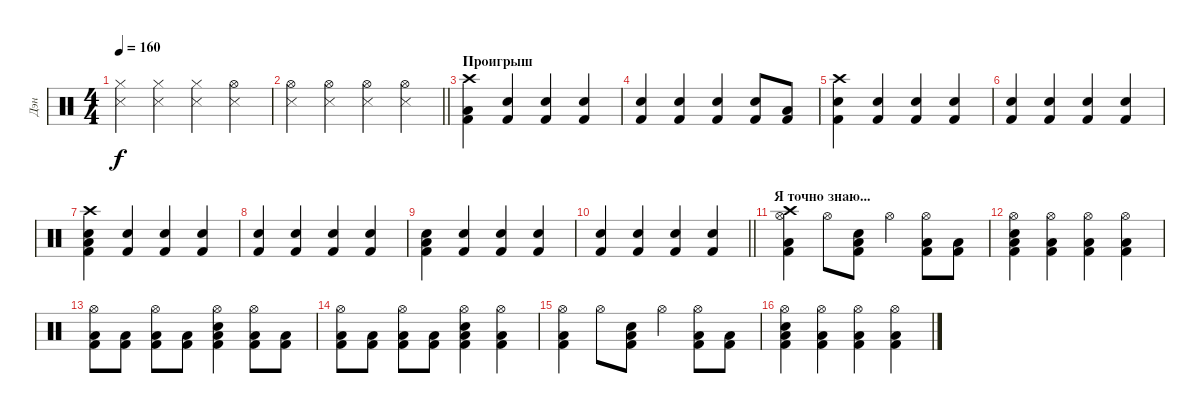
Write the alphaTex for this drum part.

\track ("Дэн" "Дэн") {instrument percussion}
\staff {score}
\articulation defaults
\ts (4 4)
\tempo 160
\clef neutral
\ks c
("Hi-Hat (closed)" "Snare (side stick) 3").4{dy f} ("Hi-Hat (closed)" "Snare (side stick) 3").4 ("Hi-Hat (closed)" "Snare (side stick) 3").4 ("Hi-Hat (open)" "Snare (side stick) 3").4 |
\barLineRight lightlight
("Hi-Hat (open)" "Snare (side stick) 3").4 ("Hi-Hat (open)" "Snare (side stick) 3").4 ("Hi-Hat (open)" "Snare (side stick) 3").4 ("Hi-Hat (open)" "Snare (side stick) 3").4 |
\section ("" "Проигрыш")
("Crash high (hit)" "Low Tom (hit)" "Kick (hit) 2").4 ("Electric Snare (hit)" "Kick (hit) 2").4 ("Electric Snare (hit)" "Kick (hit) 2").4 ("Electric Snare (hit)" "Kick (hit) 2").4 |
("Electric Snare (hit)" "Kick (hit) 2").4 ("Electric Snare (hit)" "Kick (hit) 2").4 ("Electric Snare (hit)" "Kick (hit) 2").4 ("Electric Snare (hit)" "Kick (hit) 2").8 ("Low Tom (hit)" "Kick (hit) 2").8 |
("Crash high (hit)" "Electric Snare (hit)" "Kick (hit) 2").4 ("Electric Snare (hit)" "Kick (hit) 2").4 ("Electric Snare (hit)" "Kick (hit) 2").4 ("Electric Snare (hit)" "Kick (hit) 2").4 |
("Electric Snare (hit)" "Kick (hit) 2").4 ("Electric Snare (hit)" "Kick (hit) 2").4 ("Electric Snare (hit)" "Kick (hit) 2").4 ("Electric Snare (hit)" "Kick (hit) 2").4 |
("Crash high (hit)" "Electric Snare (hit)" "Low Tom (hit)" "Kick (hit) 2").4 ("Electric Snare (hit)" "Kick (hit) 2").4 ("Electric Snare (hit)" "Kick (hit) 2").4 ("Electric Snare (hit)" "Kick (hit) 2").4 |
("Electric Snare (hit)" "Kick (hit) 2").4 ("Electric Snare (hit)" "Kick (hit) 2").4 ("Electric Snare (hit)" "Kick (hit) 2").4 ("Electric Snare (hit)" "Kick (hit) 2").4 |
("Electric Snare (hit)" "Low Tom (hit)" "Kick (hit) 2").4{volume 16} ("Electric Snare (hit)" "Kick (hit) 2").4 ("Electric Snare (hit)" "Kick (hit) 2").4 ("Electric Snare (hit)" "Kick (hit) 2").4 |
\barLineRight lightlight
("Electric Snare (hit)" "Kick (hit) 2").4 ("Electric Snare (hit)" "Kick (hit) 2").4 ("Electric Snare (hit)" "Kick (hit) 2").4 ("Electric Snare (hit)" "Kick (hit) 2").4 |
\section ("" "Я точно знаю...")
("Crash high (hit)" "Hi-Hat (open)" "Low Tom (hit)" "Kick (hit) 2").4 "Hi-Hat (open)".8 ("Electric Snare (hit)" "Low Tom (hit)" "Kick (hit) 2").8 "Hi-Hat (open)".4 ("Hi-Hat (open)" "Low Tom (hit)" "Kick (hit) 2").8 ("Low Tom (hit)" "Kick (hit) 2").8 |
("Hi-Hat (open)" "Electric Snare (hit)" "Low Tom (hit)" "Kick (hit) 2").4 ("Hi-Hat (open)" "Low Tom (hit)" "Kick (hit) 2").4 ("Hi-Hat (open)" "Low Tom (hit)" "Kick (hit) 2").4 ("Hi-Hat (open)" "Low Tom (hit)" "Kick (hit) 2").4 |
("Hi-Hat (open)" "Low Tom (hit)" "Kick (hit) 2").8 ("Low Tom (hit)" "Kick (hit) 2").8 ("Hi-Hat (open)" "Low Tom (hit)" "Kick (hit) 2").8 ("Low Tom (hit)" "Kick (hit) 2").8 ("Hi-Hat (open)" "Electric Snare (hit)" "Low Tom (hit)" "Kick (hit) 2").4 ("Hi-Hat (open)" "Low Tom (hit)" "Kick (hit) 2").8 ("Low Tom (hit)" "Kick (hit) 2").8 |
("Hi-Hat (open)" "Low Tom (hit)" "Kick (hit) 2").8 ("Low Tom (hit)" "Kick (hit) 2").8 ("Hi-Hat (open)" "Low Tom (hit)" "Kick (hit) 2").8 ("Low Tom (hit)" "Kick (hit) 2").8 ("Hi-Hat (open)" "Electric Snare (hit)" "Low Tom (hit)" "Kick (hit) 2").4 ("Hi-Hat (open)" "Low Tom (hit)" "Kick (hit) 2").4 |
("Hi-Hat (open)" "Low Tom (hit)" "Kick (hit) 2").4 "Hi-Hat (open)".8 ("Electric Snare (hit)" "Low Tom (hit)" "Kick (hit) 2").8 "Hi-Hat (open)".4 ("Hi-Hat (open)" "Low Tom (hit)" "Kick (hit) 2").8 ("Low Tom (hit)" "Kick (hit) 2").8 |
("Hi-Hat (open)" "Electric Snare (hit)" "Low Tom (hit)" "Kick (hit) 2").4 ("Hi-Hat (open)" "Low Tom (hit)" "Kick (hit) 2").4 ("Hi-Hat (open)" "Low Tom (hit)" "Kick (hit) 2").4 ("Hi-Hat (open)" "Low Tom (hit)" "Kick (hit) 2").4
